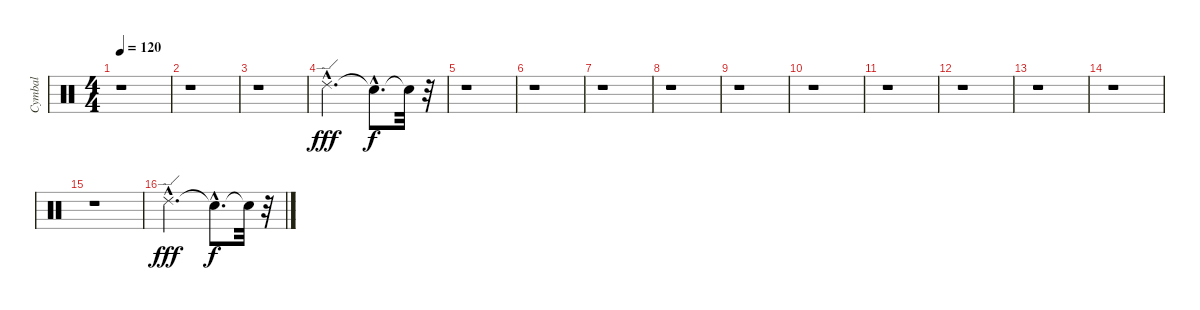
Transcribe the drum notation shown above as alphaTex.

\track ("Cymbal" "Cymbal") {instrument percussion}
\staff {score}
\articulation defaults
\ts (4 4)
\tempo 120
\clef neutral
\ks c
r.1{dy f} |
r.1 |
r.1 |
"Ride (edge) 2"{hac}.2{d dy fff} "Snare (hit)"{hac t}.8{d dy f} "Snare (hit)"{t}.32 r.32 |
r.1 |
r.1 |
r.1 |
r.1 |
r.1 |
r.1 |
r.1 |
r.1 |
r.1 |
r.1 |
r.1 |
"Ride (edge) 2"{hac}.2{d dy fff} "Snare (hit)"{hac t}.8{d dy f} "Snare (hit)"{t}.32 r.32
